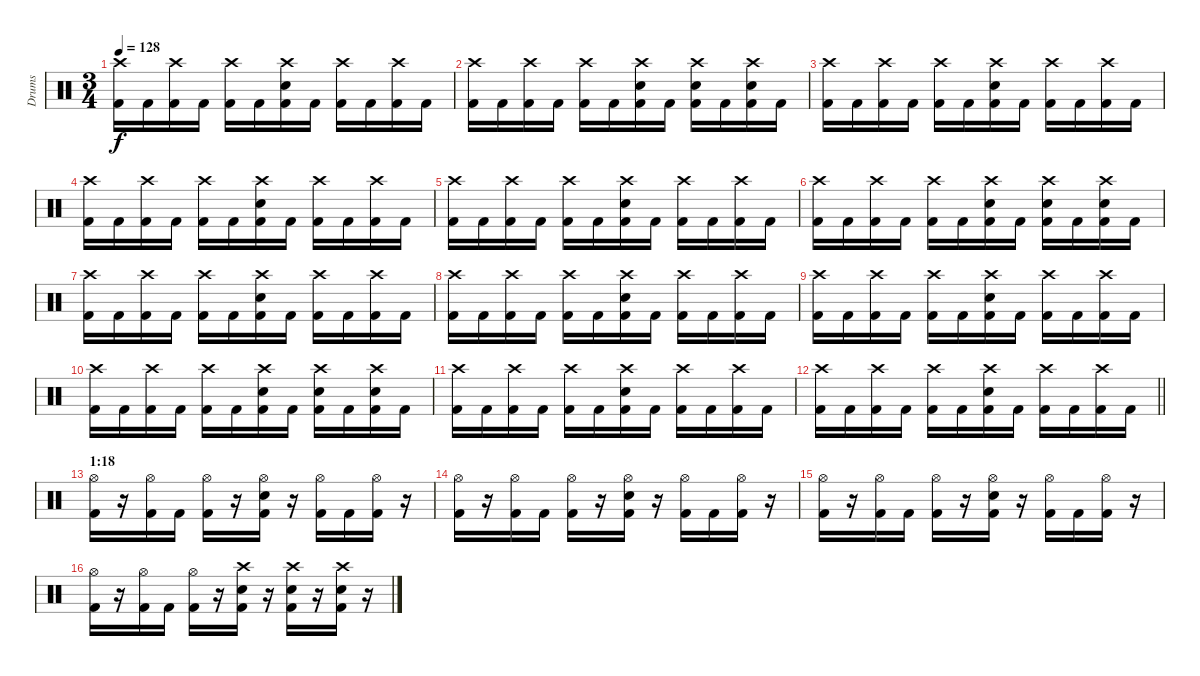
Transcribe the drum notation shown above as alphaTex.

\track ("Drums" "Drums") {instrument percussion}
\staff {score}
\articulation defaults
\ts (3 4)
\tempo 128
\clef neutral
\ks c
("Crash high (hit)" "Kick (hit) 2").16{dy f} "Kick (hit) 2".16 ("Crash high (hit)" "Kick (hit) 2").16 "Kick (hit) 2".16 ("Crash high (hit)" "Kick (hit) 2").16 "Kick (hit) 2".16 ("Crash high (hit)" "Snare (hit) 2" "Kick (hit) 2").16 "Kick (hit) 2".16 ("Crash high (hit)" "Kick (hit) 2").16 "Kick (hit) 2".16 ("Crash high (hit)" "Kick (hit) 2").16 "Kick (hit) 2".16 |
("Crash high (hit)" "Kick (hit) 2").16 "Kick (hit) 2".16 ("Crash high (hit)" "Kick (hit) 2").16 "Kick (hit) 2".16 ("Crash high (hit)" "Kick (hit) 2").16 "Kick (hit) 2".16 ("Crash high (hit)" "Snare (hit) 2" "Kick (hit) 2").16 "Kick (hit) 2".16 ("Crash high (hit)" "Snare (hit) 2" "Kick (hit) 2").16 "Kick (hit) 2".16 ("Crash high (hit)" "Snare (hit) 2" "Kick (hit) 2").16 "Kick (hit) 2".16 |
("Crash high (hit)" "Kick (hit) 2").16 "Kick (hit) 2".16 ("Crash high (hit)" "Kick (hit) 2").16 "Kick (hit) 2".16 ("Crash high (hit)" "Kick (hit) 2").16 "Kick (hit) 2".16 ("Crash high (hit)" "Snare (hit) 2" "Kick (hit) 2").16 "Kick (hit) 2".16 ("Crash high (hit)" "Kick (hit) 2").16 "Kick (hit) 2".16 ("Crash high (hit)" "Kick (hit) 2").16 "Kick (hit) 2".16 |
("Crash high (hit)" "Kick (hit) 2").16 "Kick (hit) 2".16 ("Crash high (hit)" "Kick (hit) 2").16 "Kick (hit) 2".16 ("Crash high (hit)" "Kick (hit) 2").16 "Kick (hit) 2".16 ("Crash high (hit)" "Snare (hit) 2" "Kick (hit) 2").16 "Kick (hit) 2".16 ("Crash high (hit)" "Kick (hit) 2").16 "Kick (hit) 2".16 ("Crash high (hit)" "Kick (hit) 2").16 "Kick (hit) 2".16 |
("Crash high (hit)" "Kick (hit) 2").16 "Kick (hit) 2".16 ("Crash high (hit)" "Kick (hit) 2").16 "Kick (hit) 2".16 ("Crash high (hit)" "Kick (hit) 2").16 "Kick (hit) 2".16 ("Crash high (hit)" "Snare (hit) 2" "Kick (hit) 2").16 "Kick (hit) 2".16 ("Crash high (hit)" "Kick (hit) 2").16 "Kick (hit) 2".16 ("Crash high (hit)" "Kick (hit) 2").16 "Kick (hit) 2".16 |
("Crash high (hit)" "Kick (hit) 2").16 "Kick (hit) 2".16 ("Crash high (hit)" "Kick (hit) 2").16 "Kick (hit) 2".16 ("Crash high (hit)" "Kick (hit) 2").16 "Kick (hit) 2".16 ("Crash high (hit)" "Snare (hit) 2" "Kick (hit) 2").16 "Kick (hit) 2".16 ("Crash high (hit)" "Snare (hit) 2" "Kick (hit) 2").16 "Kick (hit) 2".16 ("Crash high (hit)" "Snare (hit) 2" "Kick (hit) 2").16 "Kick (hit) 2".16 |
("Crash high (hit)" "Kick (hit) 2").16 "Kick (hit) 2".16 ("Crash high (hit)" "Kick (hit) 2").16 "Kick (hit) 2".16 ("Crash high (hit)" "Kick (hit) 2").16 "Kick (hit) 2".16 ("Crash high (hit)" "Snare (hit) 2" "Kick (hit) 2").16 "Kick (hit) 2".16 ("Crash high (hit)" "Kick (hit) 2").16 "Kick (hit) 2".16 ("Crash high (hit)" "Kick (hit) 2").16 "Kick (hit) 2".16 |
("Crash high (hit)" "Kick (hit) 2").16 "Kick (hit) 2".16 ("Crash high (hit)" "Kick (hit) 2").16 "Kick (hit) 2".16 ("Crash high (hit)" "Kick (hit) 2").16 "Kick (hit) 2".16 ("Crash high (hit)" "Snare (hit) 2" "Kick (hit) 2").16 "Kick (hit) 2".16 ("Crash high (hit)" "Kick (hit) 2").16 "Kick (hit) 2".16 ("Crash high (hit)" "Kick (hit) 2").16 "Kick (hit) 2".16 |
("Crash high (hit)" "Kick (hit) 2").16 "Kick (hit) 2".16 ("Crash high (hit)" "Kick (hit) 2").16 "Kick (hit) 2".16 ("Crash high (hit)" "Kick (hit) 2").16 "Kick (hit) 2".16 ("Crash high (hit)" "Snare (hit) 2" "Kick (hit) 2").16 "Kick (hit) 2".16 ("Crash high (hit)" "Kick (hit) 2").16 "Kick (hit) 2".16 ("Crash high (hit)" "Kick (hit) 2").16 "Kick (hit) 2".16 |
("Crash high (hit)" "Kick (hit) 2").16 "Kick (hit) 2".16 ("Crash high (hit)" "Kick (hit) 2").16 "Kick (hit) 2".16 ("Crash high (hit)" "Kick (hit) 2").16 "Kick (hit) 2".16 ("Crash high (hit)" "Snare (hit) 2" "Kick (hit) 2").16 "Kick (hit) 2".16 ("Crash high (hit)" "Snare (hit) 2" "Kick (hit) 2").16 "Kick (hit) 2".16 ("Crash high (hit)" "Snare (hit) 2" "Kick (hit) 2").16 "Kick (hit) 2".16 |
("Crash high (hit)" "Kick (hit) 2").16 "Kick (hit) 2".16 ("Crash high (hit)" "Kick (hit) 2").16 "Kick (hit) 2".16 ("Crash high (hit)" "Kick (hit) 2").16 "Kick (hit) 2".16 ("Crash high (hit)" "Snare (hit) 2" "Kick (hit) 2").16 "Kick (hit) 2".16 ("Crash high (hit)" "Kick (hit) 2").16 "Kick (hit) 2".16 ("Crash high (hit)" "Kick (hit) 2").16 "Kick (hit) 2".16 |
\barLineRight lightlight
("Crash high (hit)" "Kick (hit) 2").16 "Kick (hit) 2".16 ("Crash high (hit)" "Kick (hit) 2").16 "Kick (hit) 2".16 ("Crash high (hit)" "Kick (hit) 2").16 "Kick (hit) 2".16 ("Crash high (hit)" "Snare (hit) 2" "Kick (hit) 2").16 "Kick (hit) 2".16 ("Crash high (hit)" "Kick (hit) 2").16 "Kick (hit) 2".16 ("Crash high (hit)" "Kick (hit) 2").16 "Kick (hit) 2".16 |
\section ("" "1:18")
("Hi-Hat (open)" "Kick (hit) 2").16 r.16 ("Hi-Hat (open)" "Kick (hit) 2").16 "Kick (hit) 2".16 ("Hi-Hat (open)" "Kick (hit) 2").16 r.16 ("Hi-Hat (open)" "Snare (hit) 2" "Kick (hit) 2").16 r.16 ("Hi-Hat (open)" "Kick (hit) 2").16 "Kick (hit) 2".16 ("Hi-Hat (open)" "Kick (hit) 2").16 r.16 |
("Hi-Hat (open)" "Kick (hit) 2").16 r.16 ("Hi-Hat (open)" "Kick (hit) 2").16 "Kick (hit) 2".16 ("Hi-Hat (open)" "Kick (hit) 2").16 r.16 ("Hi-Hat (open)" "Snare (hit) 2" "Kick (hit) 2").16 r.16 ("Hi-Hat (open)" "Kick (hit) 2").16 "Kick (hit) 2".16 ("Hi-Hat (open)" "Kick (hit) 2").16 r.16 |
("Hi-Hat (open)" "Kick (hit) 2").16 r.16 ("Hi-Hat (open)" "Kick (hit) 2").16 "Kick (hit) 2".16 ("Hi-Hat (open)" "Kick (hit) 2").16 r.16 ("Hi-Hat (open)" "Snare (hit) 2" "Kick (hit) 2").16 r.16 ("Hi-Hat (open)" "Kick (hit) 2").16 "Kick (hit) 2".16 ("Hi-Hat (open)" "Kick (hit) 2").16 r.16 |
("Hi-Hat (open)" "Kick (hit) 2").16 r.16 ("Hi-Hat (open)" "Kick (hit) 2").16 "Kick (hit) 2".16 ("Hi-Hat (open)" "Kick (hit) 2").16 r.16 ("Crash high (hit)" "Snare (hit) 2" "Kick (hit) 2").16 r.16 ("Crash high (hit)" "Snare (hit) 2" "Kick (hit) 2").16 r.16 ("Crash high (hit)" "Snare (hit) 2" "Kick (hit) 2").16 r.16
